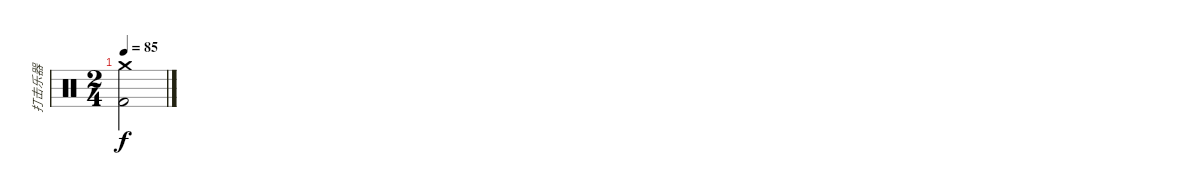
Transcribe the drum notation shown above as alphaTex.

\track ("打击乐器" "打击乐器") {instrument percussion}
\staff {score}
\articulation defaults
\ts (2 4)
\tempo 85
\clef neutral
\ks c
("Crash medium (hit)" "Kick (hit) 2").2{dy f}
